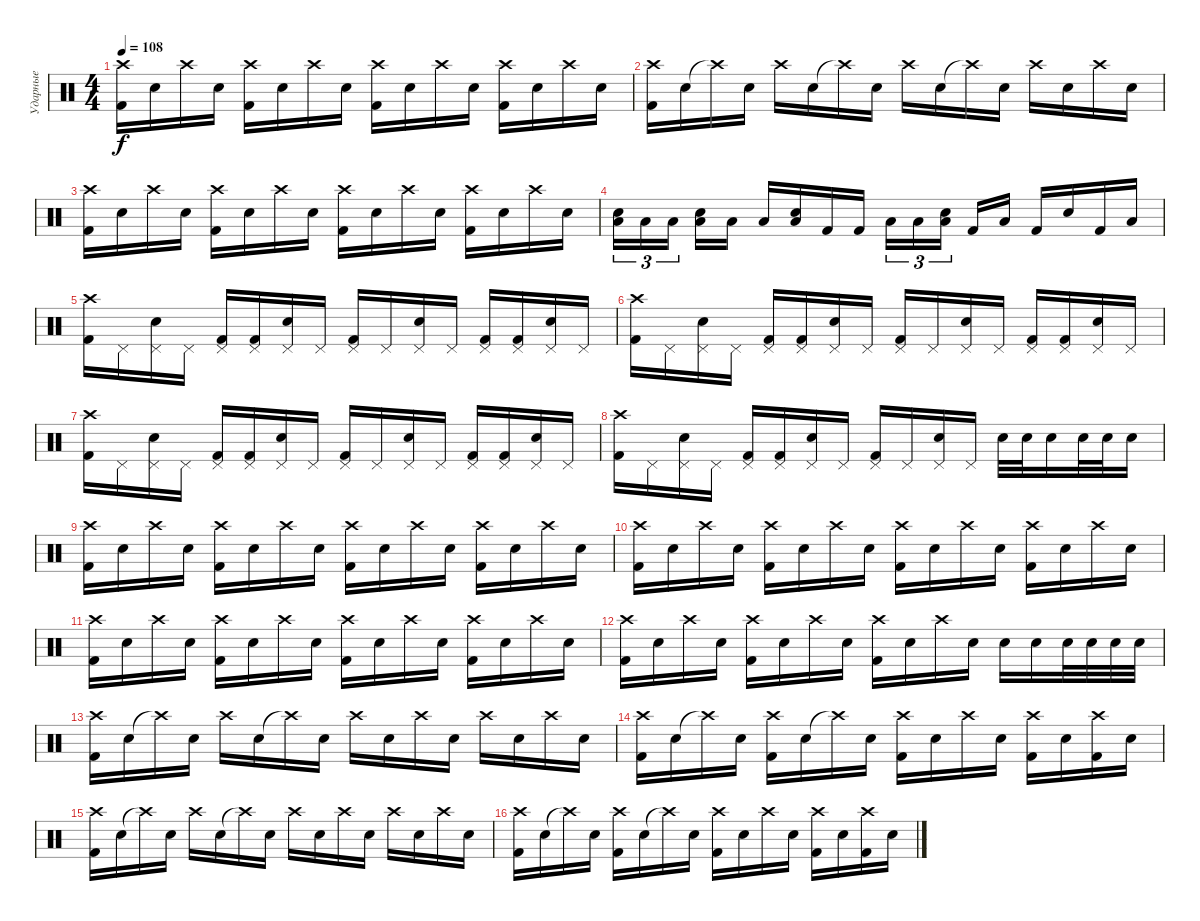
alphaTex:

\track ("Ударные" "Ударные") {instrument percussion}
\staff {score}
\articulation defaults
\ts (4 4)
\tempo 108
\clef neutral
\ks c
("Crash high (hit)" "Kick (hit) 2").16{dy f} "Electric Snare (hit)".16 "Crash high (hit)".16 "Electric Snare (hit)".16 ("Crash high (hit)" "Kick (hit) 2").16 "Electric Snare (hit)".16 "Crash high (hit)".16 "Electric Snare (hit)".16 ("Crash high (hit)" "Kick (hit) 2").16 "Electric Snare (hit)".16 "Crash high (hit)".16 "Electric Snare (hit)".16 ("Crash high (hit)" "Kick (hit) 2").16 "Electric Snare (hit)".16 "Crash high (hit)".16 "Electric Snare (hit)".16 |
("Crash high (hit)" "Kick (hit) 2").16 "Electric Snare (hit)".16 "Crash high (hit)"{t}.16 "Electric Snare (hit)".16 "Crash high (hit)".16 "Electric Snare (hit)".16 "Crash high (hit)"{t}.16 "Electric Snare (hit)".16 "Crash high (hit)".16 "Electric Snare (hit)".16 "Crash high (hit)"{t}.16 "Electric Snare (hit)".16 "Crash high (hit)".16 "Electric Snare (hit)".16 "Crash high (hit)".16 "Electric Snare (hit)".16 |
("Crash high (hit)" "Kick (hit) 2").16 "Electric Snare (hit)".16 "Crash high (hit)".16 "Electric Snare (hit)".16 ("Crash high (hit)" "Kick (hit) 2").16 "Electric Snare (hit)".16 "Crash high (hit)".16 "Electric Snare (hit)".16 ("Crash high (hit)" "Kick (hit) 2").16 "Electric Snare (hit)".16 "Crash high (hit)".16 "Electric Snare (hit)".16 ("Crash high (hit)" "Kick (hit) 2").16 "Electric Snare (hit)".16 "Crash high (hit)".16 "Electric Snare (hit)".16 |
("Electric Snare (hit)" "Low Tom (hit)").16{tu (3 2)} "Low Tom (hit)".16{tu (3 2)} "Low Tom (hit)".16{tu (3 2) beam splitsecondary} ("Electric Snare (hit)" "Low Floor Tom (hit)").16 "Low Floor Tom (hit)".16 "Low Floor Tom (hit)".16 ("Electric Snare (hit)" "Low Floor Tom (hit)").16 "Kick (hit) 2".16 "Kick (hit) 2".16 "Low Floor Tom (hit)".16{tu (3 2)} "Low Tom (hit)".16{tu (3 2)} ("Electric Snare (hit)" "Low Tom (hit)").16{tu (3 2) beam splitsecondary} "Kick (hit) 2".16 "Low Tom (hit)".16 "Kick (hit) 2".16 "Electric Snare (hit)".16 "Kick (hit) 2".16 "Low Tom (hit)".16 |
("Crash high (hit)" "Kick (hit) 2").16 "Pedal Hi-Hat (hit)".16 ("Pedal Hi-Hat (hit)" "Electric Snare (hit)").16 "Pedal Hi-Hat (hit)".16 ("Pedal Hi-Hat (hit)" "Kick (hit) 2").16 ("Pedal Hi-Hat (hit)" "Kick (hit) 2").16 ("Pedal Hi-Hat (hit)" "Electric Snare (hit)").16 "Pedal Hi-Hat (hit)".16 ("Pedal Hi-Hat (hit)" "Kick (hit) 2").16 "Pedal Hi-Hat (hit)".16 ("Pedal Hi-Hat (hit)" "Electric Snare (hit)").16 "Pedal Hi-Hat (hit)".16 ("Pedal Hi-Hat (hit)" "Kick (hit) 2").16 ("Pedal Hi-Hat (hit)" "Kick (hit) 2").16 ("Pedal Hi-Hat (hit)" "Electric Snare (hit)").16 "Pedal Hi-Hat (hit)".16 |
("Crash high (hit)" "Kick (hit) 2").16 "Pedal Hi-Hat (hit)".16 ("Pedal Hi-Hat (hit)" "Electric Snare (hit)").16 "Pedal Hi-Hat (hit)".16 ("Pedal Hi-Hat (hit)" "Kick (hit) 2").16 ("Pedal Hi-Hat (hit)" "Kick (hit) 2").16 ("Pedal Hi-Hat (hit)" "Electric Snare (hit)").16 "Pedal Hi-Hat (hit)".16 ("Pedal Hi-Hat (hit)" "Kick (hit) 2").16 "Pedal Hi-Hat (hit)".16 ("Pedal Hi-Hat (hit)" "Electric Snare (hit)").16 "Pedal Hi-Hat (hit)".16 ("Pedal Hi-Hat (hit)" "Kick (hit) 2").16 ("Pedal Hi-Hat (hit)" "Kick (hit) 2").16 ("Pedal Hi-Hat (hit)" "Electric Snare (hit)").16 "Pedal Hi-Hat (hit)".16 |
("Crash high (hit)" "Kick (hit) 2").16 "Pedal Hi-Hat (hit)".16 ("Pedal Hi-Hat (hit)" "Electric Snare (hit)").16 "Pedal Hi-Hat (hit)".16 ("Pedal Hi-Hat (hit)" "Kick (hit) 2").16 ("Pedal Hi-Hat (hit)" "Kick (hit) 2").16 ("Pedal Hi-Hat (hit)" "Electric Snare (hit)").16 "Pedal Hi-Hat (hit)".16 ("Pedal Hi-Hat (hit)" "Kick (hit) 2").16 "Pedal Hi-Hat (hit)".16 ("Pedal Hi-Hat (hit)" "Electric Snare (hit)").16 "Pedal Hi-Hat (hit)".16 ("Pedal Hi-Hat (hit)" "Kick (hit) 2").16 ("Pedal Hi-Hat (hit)" "Kick (hit) 2").16 ("Pedal Hi-Hat (hit)" "Electric Snare (hit)").16 "Pedal Hi-Hat (hit)".16 |
("Crash high (hit)" "Kick (hit) 2").16 "Pedal Hi-Hat (hit)".16 ("Pedal Hi-Hat (hit)" "Electric Snare (hit)").16 "Pedal Hi-Hat (hit)".16 ("Pedal Hi-Hat (hit)" "Kick (hit) 2").16 ("Pedal Hi-Hat (hit)" "Kick (hit) 2").16 ("Pedal Hi-Hat (hit)" "Electric Snare (hit)").16 "Pedal Hi-Hat (hit)".16 ("Pedal Hi-Hat (hit)" "Kick (hit) 2").16 "Pedal Hi-Hat (hit)".16 ("Pedal Hi-Hat (hit)" "Electric Snare (hit)").16 "Pedal Hi-Hat (hit)".16 "Electric Snare (hit)".32 "Electric Snare (hit)".32 "Electric Snare (hit)".16 "Electric Snare (hit)".32 "Electric Snare (hit)".32 "Electric Snare (hit)".16 |
("Crash high (hit)" "Kick (hit) 2").16 "Electric Snare (hit)".16 "Crash high (hit)".16 "Electric Snare (hit)".16 ("Crash high (hit)" "Kick (hit) 2").16 "Electric Snare (hit)".16 "Crash high (hit)".16 "Electric Snare (hit)".16 ("Crash high (hit)" "Kick (hit) 2").16 "Electric Snare (hit)".16 "Crash high (hit)".16 "Electric Snare (hit)".16 ("Crash high (hit)" "Kick (hit) 2").16 "Electric Snare (hit)".16 "Crash high (hit)".16 "Electric Snare (hit)".16 |
("Crash high (hit)" "Kick (hit) 2").16 "Electric Snare (hit)".16 "Crash high (hit)".16 "Electric Snare (hit)".16 ("Crash high (hit)" "Kick (hit) 2").16 "Electric Snare (hit)".16 "Crash high (hit)".16 "Electric Snare (hit)".16 ("Crash high (hit)" "Kick (hit) 2").16 "Electric Snare (hit)".16 "Crash high (hit)".16 "Electric Snare (hit)".16 ("Crash high (hit)" "Kick (hit) 2").16 "Electric Snare (hit)".16 "Crash high (hit)".16 "Electric Snare (hit)".16 |
("Crash high (hit)" "Kick (hit) 2").16 "Electric Snare (hit)".16 "Crash high (hit)".16 "Electric Snare (hit)".16 ("Crash high (hit)" "Kick (hit) 2").16 "Electric Snare (hit)".16 "Crash high (hit)".16 "Electric Snare (hit)".16 ("Crash high (hit)" "Kick (hit) 2").16 "Electric Snare (hit)".16 "Crash high (hit)".16 "Electric Snare (hit)".16 ("Crash high (hit)" "Kick (hit) 2").16 "Electric Snare (hit)".16 "Crash high (hit)".16 "Electric Snare (hit)".16 |
("Crash high (hit)" "Kick (hit) 2").16 "Electric Snare (hit)".16 "Crash high (hit)".16 "Electric Snare (hit)".16 ("Crash high (hit)" "Kick (hit) 2").16 "Electric Snare (hit)".16 "Crash high (hit)".16 "Electric Snare (hit)".16 ("Crash high (hit)" "Kick (hit) 2").16 "Electric Snare (hit)".16 "Crash high (hit)".16 "Electric Snare (hit)".16 "Electric Snare (hit)".16 "Electric Snare (hit)".16 "Electric Snare (hit)".32 "Electric Snare (hit)".32 "Electric Snare (hit)".32 "Electric Snare (hit)".32 |
("Crash high (hit)" "Kick (hit) 2").16 "Electric Snare (hit)".16 "Crash high (hit)"{t}.16 "Electric Snare (hit)".16 "Crash high (hit)".16 "Electric Snare (hit)".16 "Crash high (hit)"{t}.16 "Electric Snare (hit)".16 "Crash high (hit)".16 "Electric Snare (hit)".16 "Crash high (hit)".16 "Electric Snare (hit)".16 "Crash high (hit)".16 "Electric Snare (hit)".16 "Crash high (hit)".16 "Electric Snare (hit)".16 |
("Crash high (hit)" "Kick (hit) 2").16 "Electric Snare (hit)".16 "Crash high (hit)"{t}.16 "Electric Snare (hit)".16 ("Crash high (hit)" "Kick (hit) 2").16 "Electric Snare (hit)".16 "Crash high (hit)"{t}.16 "Electric Snare (hit)".16 ("Crash high (hit)" "Kick (hit) 2").16 "Electric Snare (hit)".16 "Crash high (hit)".16 "Electric Snare (hit)".16 ("Crash high (hit)" "Kick (hit) 2").16 "Electric Snare (hit)".16 ("Crash high (hit)" "Kick (hit) 2").16 "Electric Snare (hit)".16 |
("Crash high (hit)" "Kick (hit) 2").16 "Electric Snare (hit)".16 "Crash high (hit)"{t}.16 "Electric Snare (hit)".16 "Crash high (hit)".16 "Electric Snare (hit)".16 "Crash high (hit)"{t}.16 "Electric Snare (hit)".16 "Crash high (hit)".16 "Electric Snare (hit)".16 "Crash high (hit)".16 "Electric Snare (hit)".16 "Crash high (hit)".16 "Electric Snare (hit)".16 "Crash high (hit)".16 "Electric Snare (hit)".16 |
("Crash high (hit)" "Kick (hit) 2").16 "Electric Snare (hit)".16 "Crash high (hit)"{t}.16 "Electric Snare (hit)".16 ("Crash high (hit)" "Kick (hit) 2").16 "Electric Snare (hit)".16 "Crash high (hit)"{t}.16 "Electric Snare (hit)".16 ("Crash high (hit)" "Kick (hit) 2").16 "Electric Snare (hit)".16 "Crash high (hit)".16 "Electric Snare (hit)".16 ("Crash high (hit)" "Kick (hit) 2").16 "Electric Snare (hit)".16 ("Crash high (hit)" "Kick (hit) 2").16 "Electric Snare (hit)".16
